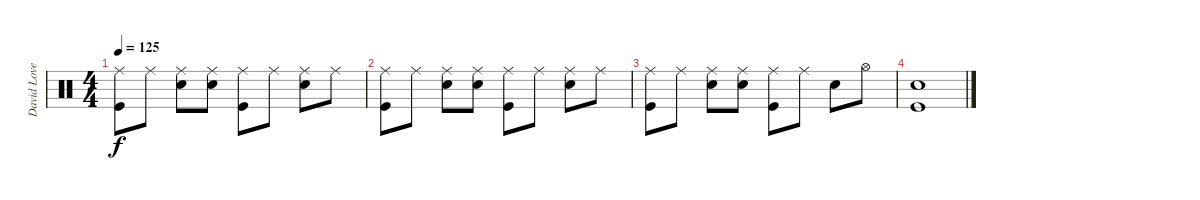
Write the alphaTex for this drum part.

\track ("David Lovering" "David Love") {instrument percussion}
\staff {score}
\articulation defaults
\ts (4 4)
\tempo 125
\clef neutral
\ks c
("Ride (middle)" "Kick (hit)").8{dy f} "Ride (middle)".8 ("Ride (middle)" "Snare (hit) 2").8 ("Ride (middle)" "Snare (hit) 2").8 ("Ride (middle)" "Kick (hit)").8 "Ride (middle)".8 ("Ride (middle)" "Snare (hit) 2").8 "Ride (middle)".8 |
("Ride (middle)" "Kick (hit)").8 "Ride (middle)".8 ("Ride (middle)" "Snare (hit) 2").8 ("Ride (middle)" "Snare (hit) 2").8 ("Ride (middle)" "Kick (hit)").8 "Ride (middle)".8 ("Ride (middle)" "Snare (hit) 2").8 "Ride (middle)".8 |
("Ride (middle)" "Kick (hit)").8 "Ride (middle)".8 ("Ride (middle)" "Snare (hit) 2").8 ("Ride (middle)" "Snare (hit) 2").8 ("Ride (middle)" "Kick (hit)").8 "Ride (middle)".8 "Snare (hit) 2".8 "Hi-Hat (open)".8 |
("Snare (hit) 2" "Kick (hit)").1
